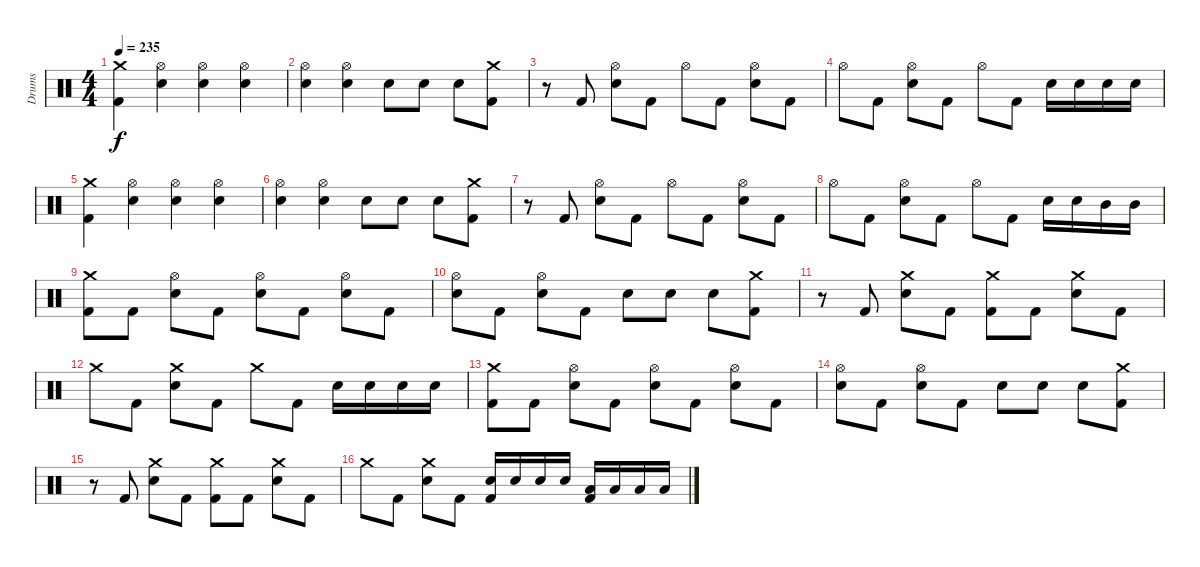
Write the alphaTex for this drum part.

\track ("Drums" "Drums") {instrument percussion}
\staff {score}
\articulation defaults
\ts (4 4)
\tempo 235
\clef neutral
\ks c
("Crash medium (hit)" "Kick (hit) 2").4{dy f} ("Hi-Hat (open)" "Electric Snare (hit)").4 ("Hi-Hat (open)" "Electric Snare (hit)").4 ("Hi-Hat (open)" "Electric Snare (hit)").4 |
("Hi-Hat (open)" "Electric Snare (hit)").4 ("Hi-Hat (open)" "Electric Snare (hit)").4 "Electric Snare (hit)".8 "Electric Snare (hit)".8 "Electric Snare (hit)".8 ("Crash medium (hit)" "Kick (hit) 2").8 |
r.8 "Kick (hit) 2".8 ("Hi-Hat (open)" "Electric Snare (hit)").8 "Kick (hit) 2".8 "Hi-Hat (open)".8 "Kick (hit) 2".8 ("Hi-Hat (open)" "Electric Snare (hit)").8 "Kick (hit) 2".8 |
"Hi-Hat (open)".8 "Kick (hit) 2".8 ("Hi-Hat (open)" "Electric Snare (hit)").8 "Kick (hit) 2".8 "Hi-Hat (open)".8 "Kick (hit) 2".8 "Electric Snare (hit)".16 "Electric Snare (hit)".16 "Electric Snare (hit)".16 "Electric Snare (hit)".16 |
("Crash medium (hit)" "Kick (hit) 2").4 ("Hi-Hat (open)" "Electric Snare (hit)").4 ("Hi-Hat (open)" "Electric Snare (hit)").4 ("Hi-Hat (open)" "Electric Snare (hit)").4 |
("Hi-Hat (open)" "Electric Snare (hit)").4 ("Hi-Hat (open)" "Electric Snare (hit)").4 "Electric Snare (hit)".8 "Electric Snare (hit)".8 "Electric Snare (hit)".8 ("Crash medium (hit)" "Kick (hit) 2").8 |
r.8 "Kick (hit) 2".8 ("Hi-Hat (open)" "Electric Snare (hit)").8 "Kick (hit) 2".8 "Hi-Hat (open)".8 "Kick (hit) 2".8 ("Hi-Hat (open)" "Electric Snare (hit)").8 "Kick (hit) 2".8 |
"Hi-Hat (open)".8 "Kick (hit) 2".8 ("Hi-Hat (open)" "Electric Snare (hit)").8 "Kick (hit) 2".8 "Hi-Hat (open)".8 "Kick (hit) 2".8 "Electric Snare (hit)".16 "Electric Snare (hit)".16 "Mid Tom (hit)".16 "Mid Tom (hit)".16 |
("Crash medium (hit)" "Kick (hit) 2").8 "Kick (hit) 2".8 ("Hi-Hat (open)" "Electric Snare (hit)").8 "Kick (hit) 2".8 ("Hi-Hat (open)" "Electric Snare (hit)").8 "Kick (hit) 2".8 ("Hi-Hat (open)" "Electric Snare (hit)").8 "Kick (hit) 2".8 |
("Hi-Hat (open)" "Electric Snare (hit)").8 "Kick (hit) 2".8 ("Hi-Hat (open)" "Electric Snare (hit)").8 "Kick (hit) 2".8 "Electric Snare (hit)".8 "Electric Snare (hit)".8 "Electric Snare (hit)".8 ("Crash medium (hit)" "Kick (hit) 2").8 |
r.8 "Kick (hit) 2".8 ("Crash medium (hit)" "Electric Snare (hit)").8 "Kick (hit) 2".8 ("Crash medium (hit)" "Kick (hit) 2").8 "Kick (hit) 2".8 ("Crash medium (hit)" "Electric Snare (hit)").8 "Kick (hit) 2".8 |
"Crash medium (hit)".8 "Kick (hit) 2".8 ("Crash medium (hit)" "Electric Snare (hit)").8 "Kick (hit) 2".8 "Crash medium (hit)".8 "Kick (hit) 2".8 "Electric Snare (hit)".16 "Electric Snare (hit)".16 "Electric Snare (hit)".16 "Electric Snare (hit)".16 |
("Crash medium (hit)" "Kick (hit) 2").8 "Kick (hit) 2".8 ("Hi-Hat (open)" "Electric Snare (hit)").8 "Kick (hit) 2".8 ("Hi-Hat (open)" "Electric Snare (hit)").8 "Kick (hit) 2".8 ("Hi-Hat (open)" "Electric Snare (hit)").8 "Kick (hit) 2".8 |
("Hi-Hat (open)" "Electric Snare (hit)").8 "Kick (hit) 2".8 ("Hi-Hat (open)" "Electric Snare (hit)").8 "Kick (hit) 2".8 "Electric Snare (hit)".8 "Electric Snare (hit)".8 "Electric Snare (hit)".8 ("Crash medium (hit)" "Kick (hit) 2").8 |
r.8 "Kick (hit) 2".8 ("Crash medium (hit)" "Electric Snare (hit)").8 "Kick (hit) 2".8 ("Crash medium (hit)" "Kick (hit) 2").8 "Kick (hit) 2".8 ("Crash medium (hit)" "Electric Snare (hit)").8 "Kick (hit) 2".8 |
"Crash medium (hit)".8 "Kick (hit) 2".8 ("Crash medium (hit)" "Electric Snare (hit)").8 "Kick (hit) 2".8 ("Electric Snare (hit)" "Kick (hit) 2").16 "Electric Snare (hit)".16 "Electric Snare (hit)".16 "Electric Snare (hit)".16 ("Low Tom (hit)" "Kick (hit) 2").16 "Low Tom (hit)".16 "Low Tom (hit)".16 "Low Tom (hit)".16
